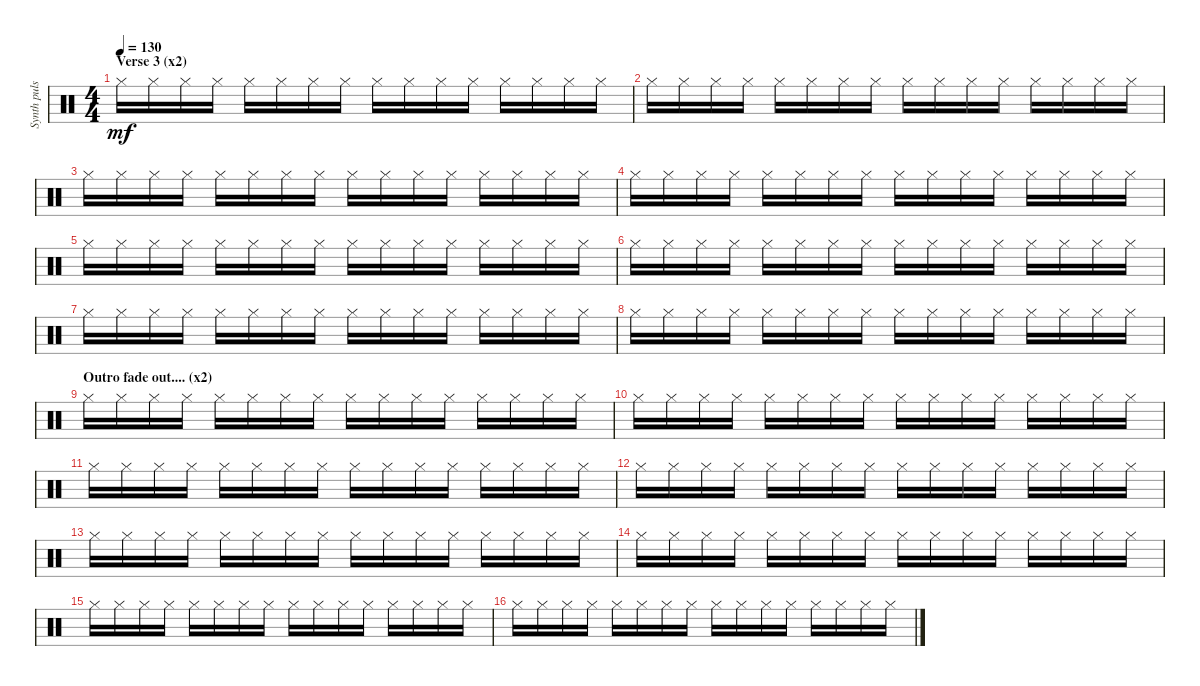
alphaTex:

\track ("Synth pulse perc" "Synth puls") {instrument percussion}
\staff {score}
\articulation defaults
\ts (4 4)
\section ("" "Verse 3 (x2)")
\tempo 130
\clef neutral
\ks c "Hi-Hat (closed)".16{dy mf} "Hi-Hat (closed)".16 "Hi-Hat (closed)".16 "Hi-Hat (closed)".16 "Hi-Hat (closed)".16 "Hi-Hat (closed)".16 "Hi-Hat (closed)".16 "Hi-Hat (closed)".16 "Hi-Hat (closed)".16 "Hi-Hat (closed)".16 "Hi-Hat (closed)".16 "Hi-Hat (closed)".16 "Hi-Hat (closed)".16 "Hi-Hat (closed)".16 "Hi-Hat (closed)".16 "Hi-Hat (closed)".16
|
"Hi-Hat (closed)".16 "Hi-Hat (closed)".16 "Hi-Hat (closed)".16 "Hi-Hat (closed)".16 "Hi-Hat (closed)".16 "Hi-Hat (closed)".16 "Hi-Hat (closed)".16 "Hi-Hat (closed)".16 "Hi-Hat (closed)".16 "Hi-Hat (closed)".16 "Hi-Hat (closed)".16 "Hi-Hat (closed)".16 "Hi-Hat (closed)".16 "Hi-Hat (closed)".16 "Hi-Hat (closed)".16 "Hi-Hat (closed)".16 |
"Hi-Hat (closed)".16 "Hi-Hat (closed)".16 "Hi-Hat (closed)".16 "Hi-Hat (closed)".16 "Hi-Hat (closed)".16 "Hi-Hat (closed)".16 "Hi-Hat (closed)".16 "Hi-Hat (closed)".16 "Hi-Hat (closed)".16 "Hi-Hat (closed)".16 "Hi-Hat (closed)".16 "Hi-Hat (closed)".16 "Hi-Hat (closed)".16 "Hi-Hat (closed)".16 "Hi-Hat (closed)".16 "Hi-Hat (closed)".16 |
"Hi-Hat (closed)".16 "Hi-Hat (closed)".16 "Hi-Hat (closed)".16 "Hi-Hat (closed)".16 "Hi-Hat (closed)".16 "Hi-Hat (closed)".16 "Hi-Hat (closed)".16 "Hi-Hat (closed)".16 "Hi-Hat (closed)".16 "Hi-Hat (closed)".16 "Hi-Hat (closed)".16 "Hi-Hat (closed)".16 "Hi-Hat (closed)".16 "Hi-Hat (closed)".16 "Hi-Hat (closed)".16 "Hi-Hat (closed)".16 |
"Hi-Hat (closed)".16 "Hi-Hat (closed)".16 "Hi-Hat (closed)".16 "Hi-Hat (closed)".16 "Hi-Hat (closed)".16 "Hi-Hat (closed)".16 "Hi-Hat (closed)".16 "Hi-Hat (closed)".16 "Hi-Hat (closed)".16 "Hi-Hat (closed)".16 "Hi-Hat (closed)".16 "Hi-Hat (closed)".16 "Hi-Hat (closed)".16 "Hi-Hat (closed)".16 "Hi-Hat (closed)".16 "Hi-Hat (closed)".16 |
"Hi-Hat (closed)".16 "Hi-Hat (closed)".16 "Hi-Hat (closed)".16 "Hi-Hat (closed)".16 "Hi-Hat (closed)".16 "Hi-Hat (closed)".16 "Hi-Hat (closed)".16 "Hi-Hat (closed)".16 "Hi-Hat (closed)".16 "Hi-Hat (closed)".16 "Hi-Hat (closed)".16 "Hi-Hat (closed)".16 "Hi-Hat (closed)".16 "Hi-Hat (closed)".16 "Hi-Hat (closed)".16 "Hi-Hat (closed)".16 |
"Hi-Hat (closed)".16 "Hi-Hat (closed)".16 "Hi-Hat (closed)".16 "Hi-Hat (closed)".16 "Hi-Hat (closed)".16 "Hi-Hat (closed)".16 "Hi-Hat (closed)".16 "Hi-Hat (closed)".16 "Hi-Hat (closed)".16 "Hi-Hat (closed)".16 "Hi-Hat (closed)".16 "Hi-Hat (closed)".16 "Hi-Hat (closed)".16 "Hi-Hat (closed)".16 "Hi-Hat (closed)".16 "Hi-Hat (closed)".16 |
"Hi-Hat (closed)".16 "Hi-Hat (closed)".16 "Hi-Hat (closed)".16 "Hi-Hat (closed)".16 "Hi-Hat (closed)".16 "Hi-Hat (closed)".16 "Hi-Hat (closed)".16 "Hi-Hat (closed)".16 "Hi-Hat (closed)".16 "Hi-Hat (closed)".16 "Hi-Hat (closed)".16 "Hi-Hat (closed)".16 "Hi-Hat (closed)".16 "Hi-Hat (closed)".16 "Hi-Hat (closed)".16 "Hi-Hat (closed)".16 |
\section ("" "Outro fade out.... (x2)")
"Hi-Hat (closed)".16 "Hi-Hat (closed)".16 "Hi-Hat (closed)".16 "Hi-Hat (closed)".16 "Hi-Hat (closed)".16 "Hi-Hat (closed)".16 "Hi-Hat (closed)".16 "Hi-Hat (closed)".16 "Hi-Hat (closed)".16 "Hi-Hat (closed)".16 "Hi-Hat (closed)".16 "Hi-Hat (closed)".16 "Hi-Hat (closed)".16 "Hi-Hat (closed)".16 "Hi-Hat (closed)".16 "Hi-Hat (closed)".16 |
"Hi-Hat (closed)".16 "Hi-Hat (closed)".16 "Hi-Hat (closed)".16 "Hi-Hat (closed)".16 "Hi-Hat (closed)".16 "Hi-Hat (closed)".16 "Hi-Hat (closed)".16 "Hi-Hat (closed)".16 "Hi-Hat (closed)".16 "Hi-Hat (closed)".16 "Hi-Hat (closed)".16 "Hi-Hat (closed)".16 "Hi-Hat (closed)".16 "Hi-Hat (closed)".16 "Hi-Hat (closed)".16 "Hi-Hat (closed)".16 |
"Hi-Hat (closed)".16 "Hi-Hat (closed)".16 "Hi-Hat (closed)".16 "Hi-Hat (closed)".16 "Hi-Hat (closed)".16 "Hi-Hat (closed)".16 "Hi-Hat (closed)".16 "Hi-Hat (closed)".16 "Hi-Hat (closed)".16 "Hi-Hat (closed)".16 "Hi-Hat (closed)".16 "Hi-Hat (closed)".16 "Hi-Hat (closed)".16 "Hi-Hat (closed)".16 "Hi-Hat (closed)".16 "Hi-Hat (closed)".16 |
"Hi-Hat (closed)".16 "Hi-Hat (closed)".16 "Hi-Hat (closed)".16 "Hi-Hat (closed)".16 "Hi-Hat (closed)".16 "Hi-Hat (closed)".16 "Hi-Hat (closed)".16 "Hi-Hat (closed)".16 "Hi-Hat (closed)".16 "Hi-Hat (closed)".16 "Hi-Hat (closed)".16 "Hi-Hat (closed)".16 "Hi-Hat (closed)".16 "Hi-Hat (closed)".16 "Hi-Hat (closed)".16 "Hi-Hat (closed)".16 |
"Hi-Hat (closed)".16 "Hi-Hat (closed)".16 "Hi-Hat (closed)".16 "Hi-Hat (closed)".16 "Hi-Hat (closed)".16 "Hi-Hat (closed)".16 "Hi-Hat (closed)".16 "Hi-Hat (closed)".16 "Hi-Hat (closed)".16 "Hi-Hat (closed)".16 "Hi-Hat (closed)".16 "Hi-Hat (closed)".16 "Hi-Hat (closed)".16 "Hi-Hat (closed)".16 "Hi-Hat (closed)".16 "Hi-Hat (closed)".16 |
"Hi-Hat (closed)".16 "Hi-Hat (closed)".16 "Hi-Hat (closed)".16 "Hi-Hat (closed)".16 "Hi-Hat (closed)".16 "Hi-Hat (closed)".16 "Hi-Hat (closed)".16 "Hi-Hat (closed)".16 "Hi-Hat (closed)".16 "Hi-Hat (closed)".16 "Hi-Hat (closed)".16 "Hi-Hat (closed)".16 "Hi-Hat (closed)".16 "Hi-Hat (closed)".16 "Hi-Hat (closed)".16 "Hi-Hat (closed)".16 |
"Hi-Hat (closed)".16 "Hi-Hat (closed)".16 "Hi-Hat (closed)".16 "Hi-Hat (closed)".16 "Hi-Hat (closed)".16 "Hi-Hat (closed)".16 "Hi-Hat (closed)".16 "Hi-Hat (closed)".16 "Hi-Hat (closed)".16 "Hi-Hat (closed)".16 "Hi-Hat (closed)".16 "Hi-Hat (closed)".16 "Hi-Hat (closed)".16 "Hi-Hat (closed)".16 "Hi-Hat (closed)".16 "Hi-Hat (closed)".16 |
"Hi-Hat (closed)".16 "Hi-Hat (closed)".16 "Hi-Hat (closed)".16 "Hi-Hat (closed)".16 "Hi-Hat (closed)".16 "Hi-Hat (closed)".16 "Hi-Hat (closed)".16 "Hi-Hat (closed)".16 "Hi-Hat (closed)".16 "Hi-Hat (closed)".16 "Hi-Hat (closed)".16 "Hi-Hat (closed)".16 "Hi-Hat (closed)".16 "Hi-Hat (closed)".16 "Hi-Hat (closed)".16 "Hi-Hat (closed)".16
